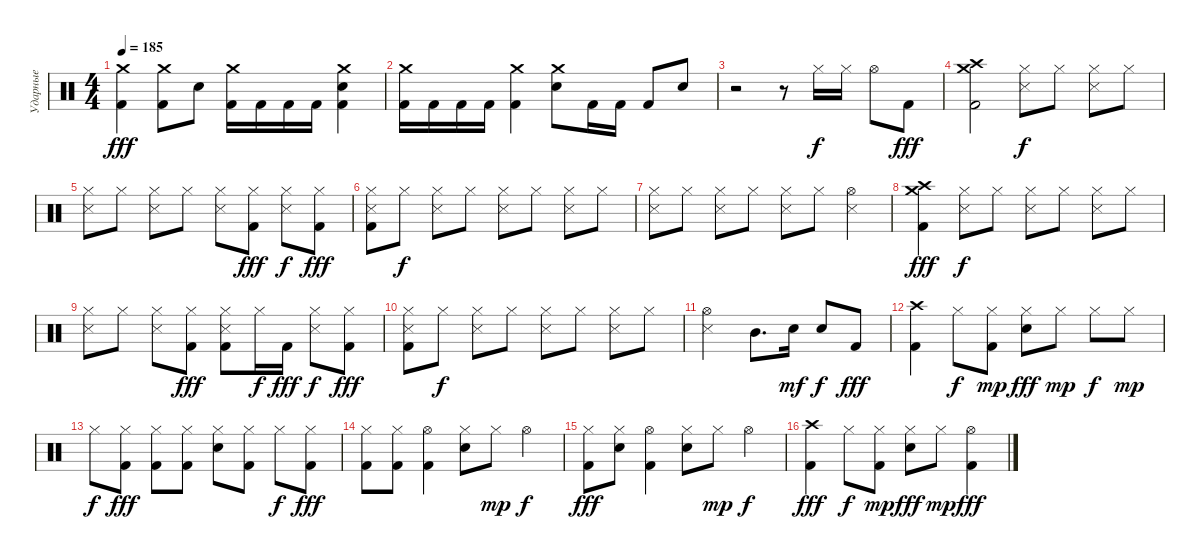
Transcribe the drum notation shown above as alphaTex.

\track ("Ударные" "Ударные") {instrument percussion}
\staff {score}
\articulation defaults
\ts (4 4)
\tempo 185
\clef neutral
\ks c
("Crash medium (hit)" "Kick (hit) 2").4{dy fff} ("Crash medium (hit)" "Kick (hit) 2").8 "Electric Snare (hit)".8 ("Crash medium (hit)" "Kick (hit) 2").16 "Kick (hit) 2".16 "Kick (hit) 2".16 "Kick (hit) 2".16 ("Crash medium (hit)" "Electric Snare (hit)" "Kick (hit) 2").4 |
("Crash medium (hit)" "Kick (hit) 2").16 "Kick (hit) 2".16 "Kick (hit) 2".16 "Kick (hit) 2".16 ("Crash medium (hit)" "Kick (hit) 2").4 ("Crash medium (hit)" "Electric Snare (hit)").8 "Kick (hit) 2".16 "Kick (hit) 2".16 "Kick (hit) 2".8 "Electric Snare (hit)".8 |
r.2 r.8 "Hi-Hat (closed)".16{dy f} "Hi-Hat (closed)".16 "Hi-Hat (open)".8 "Kick (hit) 2".8{dy fff} |
("Crash high (hit)" "Crash medium (hit)" "Kick (hit) 2").2 ("Hi-Hat (closed)" "Snare (side stick) 3").8{dy f} "Hi-Hat (closed)".8 ("Hi-Hat (closed)" "Snare (side stick) 3").8 "Hi-Hat (closed)".8 |
("Hi-Hat (closed)" "Snare (side stick) 3").8 "Hi-Hat (closed)".8 ("Hi-Hat (closed)" "Snare (side stick) 3").8 "Hi-Hat (closed)".8 ("Hi-Hat (closed)" "Snare (side stick) 3").8 ("Hi-Hat (closed)" "Kick (hit) 2").8{dy fff} ("Hi-Hat (closed)" "Snare (side stick) 3").8{dy f} ("Hi-Hat (closed)" "Kick (hit) 2").8{dy fff} |
("Hi-Hat (closed)" "Snare (side stick) 3" "Kick (hit) 2").8 "Hi-Hat (closed)".8{dy f} ("Hi-Hat (closed)" "Snare (side stick) 3").8 "Hi-Hat (closed)".8 ("Hi-Hat (closed)" "Snare (side stick) 3").8 "Hi-Hat (closed)".8 ("Hi-Hat (closed)" "Snare (side stick) 3").8 "Hi-Hat (closed)".8 |
("Hi-Hat (closed)" "Snare (side stick) 3").8 "Hi-Hat (closed)".8 ("Hi-Hat (closed)" "Snare (side stick) 3").8 "Hi-Hat (closed)".8 ("Hi-Hat (closed)" "Snare (side stick) 3").8 "Hi-Hat (closed)".8 ("Hi-Hat (open)" "Snare (side stick) 3").4 |
("Crash high (hit)" "Crash medium (hit)" "Kick (hit) 2").4{dy fff} ("Hi-Hat (closed)" "Snare (side stick) 3").8{dy f} "Hi-Hat (closed)".8 ("Hi-Hat (closed)" "Snare (side stick) 3").8 "Hi-Hat (closed)".8 ("Hi-Hat (closed)" "Snare (side stick) 3").8 "Hi-Hat (closed)".8 |
("Hi-Hat (closed)" "Snare (side stick) 3").8 "Hi-Hat (closed)".8 ("Hi-Hat (closed)" "Snare (side stick) 3").8 ("Hi-Hat (closed)" "Kick (hit) 2").8{dy fff} ("Hi-Hat (closed)" "Snare (side stick) 3" "Kick (hit) 2").8 "Hi-Hat (closed)".16{dy f} "Kick (hit) 2".16{dy fff} ("Hi-Hat (closed)" "Snare (side stick) 3").8{dy f} ("Hi-Hat (closed)" "Kick (hit) 2").8{dy fff} |
("Hi-Hat (closed)" "Snare (side stick) 3" "Kick (hit) 2").8 "Hi-Hat (closed)".8{dy f} ("Hi-Hat (closed)" "Snare (side stick) 3").8 "Hi-Hat (closed)".8 ("Hi-Hat (closed)" "Snare (side stick) 3").8 "Hi-Hat (closed)".8 ("Hi-Hat (closed)" "Snare (side stick) 3").8 "Hi-Hat (closed)".8 |
("Hi-Hat (open)" "Snare (side stick) 3").2 "Mid Tom (hit)".8{d} "Electric Snare (hit)".16{dy mf} "Electric Snare (hit)".8{dy f} "Kick (hit) 2".8{dy fff} |
("Crash high (hit)" "Kick (hit) 2").4 "Hi-Hat (closed)".8{dy f} ("Hi-Hat (closed)" "Kick (hit) 2").8{dy mp} ("Hi-Hat (closed)" "Electric Snare (hit)").8{dy fff} "Hi-Hat (closed)".8{dy mp} "Hi-Hat (closed)".8{dy f} "Hi-Hat (closed)".8{dy mp} |
"Hi-Hat (closed)".8{dy f} ("Hi-Hat (closed)" "Kick (hit) 2").8{dy fff} ("Hi-Hat (closed)" "Kick (hit) 2").8 ("Hi-Hat (closed)" "Kick (hit) 2").8 ("Hi-Hat (closed)" "Electric Snare (hit)").8 ("Hi-Hat (closed)" "Kick (hit) 2").8 "Hi-Hat (closed)".8{dy f} ("Hi-Hat (closed)" "Kick (hit) 2").8{dy fff} |
("Hi-Hat (closed)" "Kick (hit) 2").8 ("Hi-Hat (closed)" "Kick (hit) 2").8 ("Hi-Hat (open)" "Kick (hit) 2").4 ("Hi-Hat (closed)" "Electric Snare (hit)").8 "Hi-Hat (closed)".8{dy mp} "Hi-Hat (open)".4{dy f} |
("Hi-Hat (closed)" "Kick (hit) 2").8{dy fff} ("Hi-Hat (closed)" "Electric Snare (hit)").8 ("Hi-Hat (open)" "Kick (hit) 2").4 ("Hi-Hat (closed)" "Electric Snare (hit)").8 "Hi-Hat (closed)".8{dy mp} "Hi-Hat (open)".4{dy f} |
("Crash high (hit)" "Kick (hit) 2").4{dy fff} "Hi-Hat (closed)".8{dy f} ("Hi-Hat (closed)" "Kick (hit) 2").8{dy mp} ("Hi-Hat (closed)" "Electric Snare (hit)").8{dy fff} "Hi-Hat (closed)".8{dy mp} ("Hi-Hat (open)" "Kick (hit) 2").4{dy fff}
